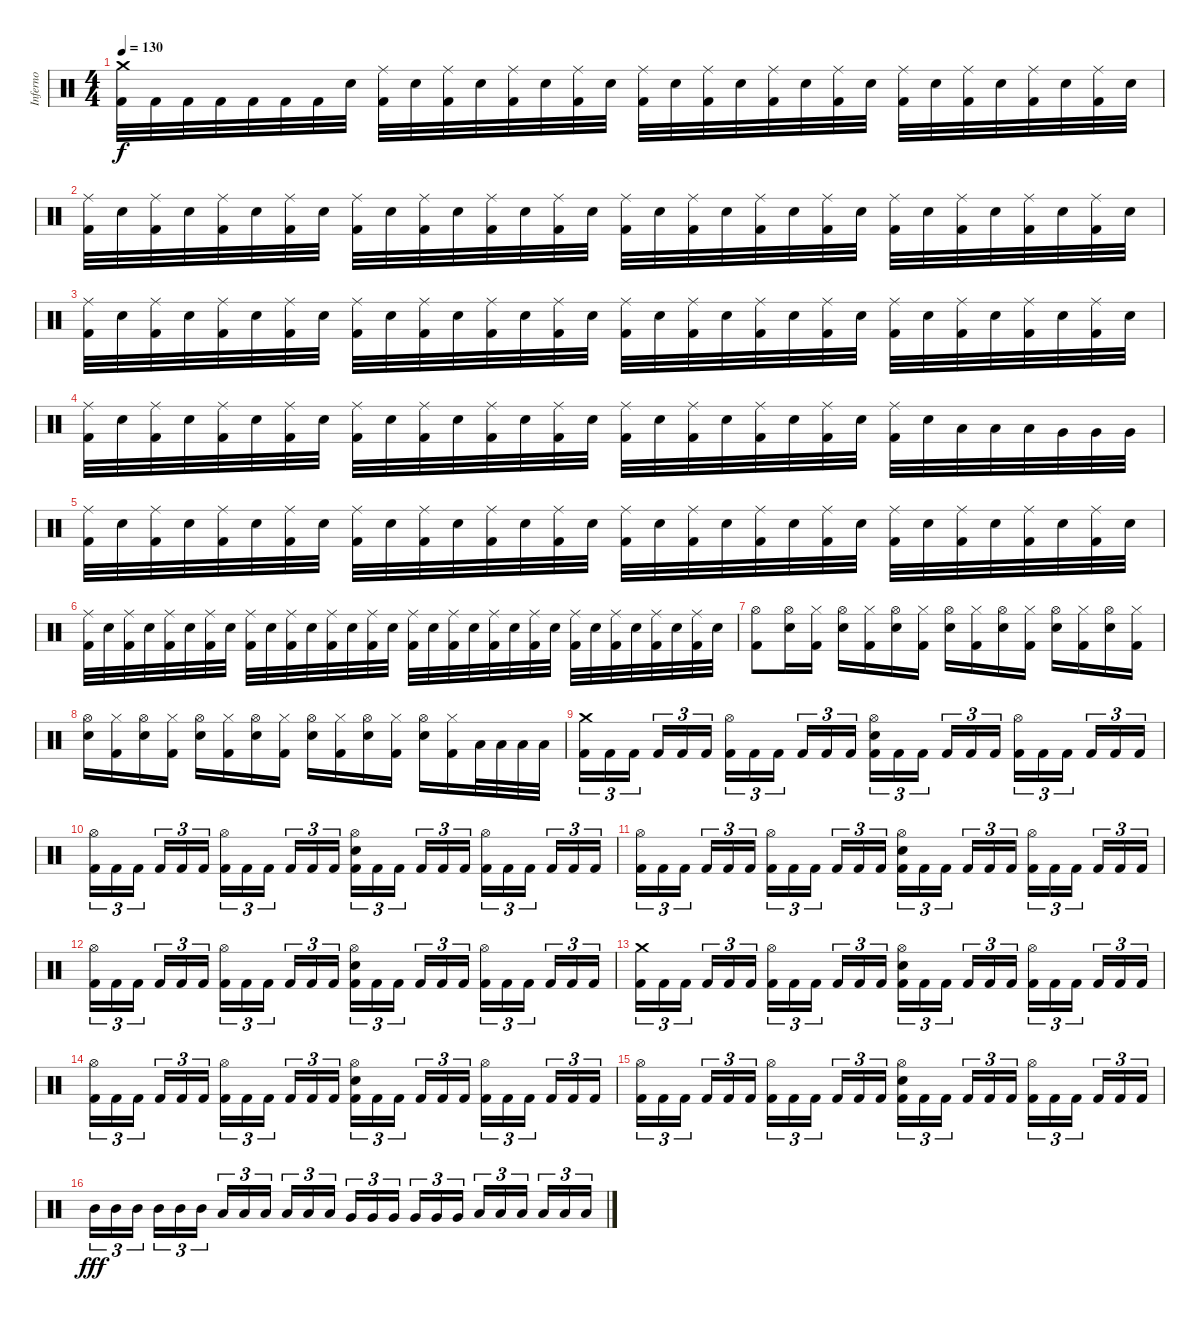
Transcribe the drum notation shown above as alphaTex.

\track ("Inferno" "Inferno") {instrument percussion}
\staff {score}
\articulation defaults
\ts (4 4)
\tempo 130
\clef neutral
\ks c
("Crash medium (hit)" "Kick (hit) 2").32{dy f} "Kick (hit) 2".32 "Kick (hit) 2".32 "Kick (hit) 2".32 "Kick (hit) 2".32 "Kick (hit) 2".32 "Kick (hit) 2".32 "Snare (hit) 2".32 ("Ride (middle)" "Kick (hit) 2").32 "Snare (hit) 2".32 ("Ride (middle)" "Kick (hit) 2").32 "Snare (hit) 2".32 ("Ride (middle)" "Kick (hit) 2").32 "Snare (hit) 2".32 ("Ride (middle)" "Kick (hit) 2").32 "Snare (hit) 2".32 ("Ride (middle)" "Kick (hit) 2").32 "Snare (hit) 2".32 ("Ride (middle)" "Kick (hit) 2").32 "Snare (hit) 2".32 ("Ride (middle)" "Kick (hit) 2").32 "Snare (hit) 2".32 ("Ride (middle)" "Kick (hit) 2").32 "Snare (hit) 2".32 ("Ride (middle)" "Kick (hit) 2").32 "Snare (hit) 2".32 ("Ride (middle)" "Kick (hit) 2").32 "Snare (hit) 2".32 ("Ride (middle)" "Kick (hit) 2").32 "Snare (hit) 2".32 ("Ride (middle)" "Kick (hit) 2").32 "Snare (hit) 2".32 |
("Ride (middle)" "Kick (hit) 2").32 "Snare (hit) 2".32 ("Ride (middle)" "Kick (hit) 2").32 "Snare (hit) 2".32 ("Ride (middle)" "Kick (hit) 2").32 "Snare (hit) 2".32 ("Ride (middle)" "Kick (hit) 2").32 "Snare (hit) 2".32 ("Ride (middle)" "Kick (hit) 2").32 "Snare (hit) 2".32 ("Ride (middle)" "Kick (hit) 2").32 "Snare (hit) 2".32 ("Ride (middle)" "Kick (hit) 2").32 "Snare (hit) 2".32 ("Ride (middle)" "Kick (hit) 2").32 "Snare (hit) 2".32 ("Ride (middle)" "Kick (hit) 2").32 "Snare (hit) 2".32 ("Ride (middle)" "Kick (hit) 2").32 "Snare (hit) 2".32 ("Ride (middle)" "Kick (hit) 2").32 "Snare (hit) 2".32 ("Ride (middle)" "Kick (hit) 2").32 "Snare (hit) 2".32 ("Ride (middle)" "Kick (hit) 2").32 "Snare (hit) 2".32 ("Ride (middle)" "Kick (hit) 2").32 "Snare (hit) 2".32 ("Ride (middle)" "Kick (hit) 2").32 "Snare (hit) 2".32 ("Ride (middle)" "Kick (hit) 2").32 "Snare (hit) 2".32 |
("Ride (middle)" "Kick (hit) 2").32 "Snare (hit) 2".32 ("Ride (middle)" "Kick (hit) 2").32 "Snare (hit) 2".32 ("Ride (middle)" "Kick (hit) 2").32 "Snare (hit) 2".32 ("Ride (middle)" "Kick (hit) 2").32 "Snare (hit) 2".32 ("Ride (middle)" "Kick (hit) 2").32 "Snare (hit) 2".32 ("Ride (middle)" "Kick (hit) 2").32 "Snare (hit) 2".32 ("Ride (middle)" "Kick (hit) 2").32 "Snare (hit) 2".32 ("Ride (middle)" "Kick (hit) 2").32 "Snare (hit) 2".32 ("Ride (middle)" "Kick (hit) 2").32 "Snare (hit) 2".32 ("Ride (middle)" "Kick (hit) 2").32 "Snare (hit) 2".32 ("Ride (middle)" "Kick (hit) 2").32 "Snare (hit) 2".32 ("Ride (middle)" "Kick (hit) 2").32 "Snare (hit) 2".32 ("Ride (middle)" "Kick (hit) 2").32 "Snare (hit) 2".32 ("Ride (middle)" "Kick (hit) 2").32 "Snare (hit) 2".32 ("Ride (middle)" "Kick (hit) 2").32 "Snare (hit) 2".32 ("Ride (middle)" "Kick (hit) 2").32 "Snare (hit) 2".32 |
("Ride (middle)" "Kick (hit) 2").32 "Snare (hit) 2".32 ("Ride (middle)" "Kick (hit) 2").32 "Snare (hit) 2".32 ("Ride (middle)" "Kick (hit) 2").32 "Snare (hit) 2".32 ("Ride (middle)" "Kick (hit) 2").32 "Snare (hit) 2".32 ("Ride (middle)" "Kick (hit) 2").32 "Snare (hit) 2".32 ("Ride (middle)" "Kick (hit) 2").32 "Snare (hit) 2".32 ("Ride (middle)" "Kick (hit) 2").32 "Snare (hit) 2".32 ("Ride (middle)" "Kick (hit) 2").32 "Snare (hit) 2".32 ("Ride (middle)" "Kick (hit) 2").32 "Snare (hit) 2".32 ("Ride (middle)" "Kick (hit) 2").32 "Snare (hit) 2".32 ("Ride (middle)" "Kick (hit) 2").32 "Snare (hit) 2".32 ("Ride (middle)" "Kick (hit) 2").32 "Snare (hit) 2".32 ("Ride (middle)" "Kick (hit) 2").32 "Snare (hit) 2".32 "Low Tom (hit)".32 "Low Tom (hit)".32 "Low Tom (hit)".32 "Very Low Tom (hit)".32 "Very Low Tom (hit)".32 "Very Low Tom (hit)".32 |
("Ride (middle)" "Kick (hit) 2").32 "Snare (hit) 2".32 ("Ride (middle)" "Kick (hit) 2").32 "Snare (hit) 2".32 ("Ride (middle)" "Kick (hit) 2").32 "Snare (hit) 2".32 ("Ride (middle)" "Kick (hit) 2").32 "Snare (hit) 2".32 ("Ride (middle)" "Kick (hit) 2").32 "Snare (hit) 2".32 ("Ride (middle)" "Kick (hit) 2").32 "Snare (hit) 2".32 ("Ride (middle)" "Kick (hit) 2").32 "Snare (hit) 2".32 ("Ride (middle)" "Kick (hit) 2").32 "Snare (hit) 2".32 ("Ride (middle)" "Kick (hit) 2").32 "Snare (hit) 2".32 ("Ride (middle)" "Kick (hit) 2").32 "Snare (hit) 2".32 ("Ride (middle)" "Kick (hit) 2").32 "Snare (hit) 2".32 ("Ride (middle)" "Kick (hit) 2").32 "Snare (hit) 2".32 ("Ride (middle)" "Kick (hit) 2").32 "Snare (hit) 2".32 ("Ride (middle)" "Kick (hit) 2").32 "Snare (hit) 2".32 ("Ride (middle)" "Kick (hit) 2").32 "Snare (hit) 2".32 ("Ride (middle)" "Kick (hit) 2").32 "Snare (hit) 2".32 |
("Ride (middle)" "Kick (hit) 2").32 "Snare (hit) 2".32 ("Ride (middle)" "Kick (hit) 2").32 "Snare (hit) 2".32 ("Ride (middle)" "Kick (hit) 2").32 "Snare (hit) 2".32 ("Ride (middle)" "Kick (hit) 2").32 "Snare (hit) 2".32 ("Ride (middle)" "Kick (hit) 2").32 "Snare (hit) 2".32 ("Ride (middle)" "Kick (hit) 2").32 "Snare (hit) 2".32 ("Ride (middle)" "Kick (hit) 2").32 "Snare (hit) 2".32 ("Ride (middle)" "Kick (hit) 2").32 "Snare (hit) 2".32 ("Ride (middle)" "Kick (hit) 2").32 "Snare (hit) 2".32 ("Ride (middle)" "Kick (hit) 2").32 "Snare (hit) 2".32 ("Ride (middle)" "Kick (hit) 2").32 "Snare (hit) 2".32 ("Ride (middle)" "Kick (hit) 2").32 "Snare (hit) 2".32 ("Ride (middle)" "Kick (hit) 2").32 "Snare (hit) 2".32 ("Ride (middle)" "Kick (hit) 2").32 "Snare (hit) 2".32 ("Ride (middle)" "Kick (hit) 2").32 "Snare (hit) 2".32 ("Ride (middle)" "Kick (hit) 2").32 "Snare (hit) 2".32 |
("Hi-Hat (open)" "Kick (hit) 2").8 ("Hi-Hat (open)" "Snare (hit) 2").16 ("Hi-Hat (closed)" "Kick (hit) 2").16 ("Hi-Hat (open)" "Snare (hit) 2").16 ("Hi-Hat (closed)" "Kick (hit) 2").16 ("Hi-Hat (open)" "Snare (hit) 2").16 ("Hi-Hat (closed)" "Kick (hit) 2").16 ("Hi-Hat (open)" "Snare (hit) 2").16 ("Hi-Hat (closed)" "Kick (hit) 2").16 ("Hi-Hat (open)" "Snare (hit) 2").16 ("Hi-Hat (closed)" "Kick (hit) 2").16 ("Hi-Hat (open)" "Snare (hit) 2").16 ("Hi-Hat (closed)" "Kick (hit) 2").16 ("Hi-Hat (open)" "Snare (hit) 2").16 ("Hi-Hat (closed)" "Kick (hit) 2").16 |
("Hi-Hat (open)" "Snare (hit) 2").16 ("Hi-Hat (closed)" "Kick (hit) 2").16 ("Hi-Hat (open)" "Snare (hit) 2").16 ("Hi-Hat (closed)" "Kick (hit) 2").16 ("Hi-Hat (open)" "Snare (hit) 2").16 ("Hi-Hat (closed)" "Kick (hit) 2").16 ("Hi-Hat (open)" "Snare (hit) 2").16 ("Hi-Hat (closed)" "Kick (hit) 2").16 ("Hi-Hat (open)" "Snare (hit) 2").16 ("Hi-Hat (closed)" "Kick (hit) 2").16 ("Hi-Hat (open)" "Snare (hit) 2").16 ("Hi-Hat (closed)" "Kick (hit) 2").16 ("Hi-Hat (open)" "Snare (hit) 2").16 ("Hi-Hat (closed)" "Kick (hit) 2").16 "Low Floor Tom (hit)".32 "Low Floor Tom (hit)".32 "Low Floor Tom (hit)".32 "Low Floor Tom (hit)".32 |
("Crash medium (hit)" "Kick (hit) 2").16{tu (3 2)} "Kick (hit) 2".16{tu (3 2)} "Kick (hit) 2".16{tu (3 2) beam splitsecondary} "Kick (hit) 2".16{tu (3 2)} "Kick (hit) 2".16{tu (3 2)} "Kick (hit) 2".16{tu (3 2)} ("Hi-Hat (open)" "Kick (hit) 2").16{tu (3 2)} "Kick (hit) 2".16{tu (3 2)} "Kick (hit) 2".16{tu (3 2) beam splitsecondary} "Kick (hit) 2".16{tu (3 2)} "Kick (hit) 2".16{tu (3 2)} "Kick (hit) 2".16{tu (3 2)} ("Hi-Hat (open)" "Snare (hit) 2" "Kick (hit) 2").16{tu (3 2)} "Kick (hit) 2".16{tu (3 2)} "Kick (hit) 2".16{tu (3 2) beam splitsecondary} "Kick (hit) 2".16{tu (3 2)} "Kick (hit) 2".16{tu (3 2)} "Kick (hit) 2".16{tu (3 2)} ("Hi-Hat (open)" "Kick (hit) 2").16{tu (3 2)} "Kick (hit) 2".16{tu (3 2)} "Kick (hit) 2".16{tu (3 2) beam splitsecondary} "Kick (hit) 2".16{tu (3 2)} "Kick (hit) 2".16{tu (3 2)} "Kick (hit) 2".16{tu (3 2)} |
("Hi-Hat (open)" "Kick (hit) 2").16{tu (3 2)} "Kick (hit) 2".16{tu (3 2)} "Kick (hit) 2".16{tu (3 2) beam splitsecondary} "Kick (hit) 2".16{tu (3 2)} "Kick (hit) 2".16{tu (3 2)} "Kick (hit) 2".16{tu (3 2)} ("Hi-Hat (open)" "Kick (hit) 2").16{tu (3 2)} "Kick (hit) 2".16{tu (3 2)} "Kick (hit) 2".16{tu (3 2) beam splitsecondary} "Kick (hit) 2".16{tu (3 2)} "Kick (hit) 2".16{tu (3 2)} "Kick (hit) 2".16{tu (3 2)} ("Hi-Hat (open)" "Snare (hit) 2" "Kick (hit) 2").16{tu (3 2)} "Kick (hit) 2".16{tu (3 2)} "Kick (hit) 2".16{tu (3 2) beam splitsecondary} "Kick (hit) 2".16{tu (3 2)} "Kick (hit) 2".16{tu (3 2)} "Kick (hit) 2".16{tu (3 2)} ("Hi-Hat (open)" "Kick (hit) 2").16{tu (3 2)} "Kick (hit) 2".16{tu (3 2)} "Kick (hit) 2".16{tu (3 2) beam splitsecondary} "Kick (hit) 2".16{tu (3 2)} "Kick (hit) 2".16{tu (3 2)} "Kick (hit) 2".16{tu (3 2)} |
("Hi-Hat (open)" "Kick (hit) 2").16{tu (3 2)} "Kick (hit) 2".16{tu (3 2)} "Kick (hit) 2".16{tu (3 2) beam splitsecondary} "Kick (hit) 2".16{tu (3 2)} "Kick (hit) 2".16{tu (3 2)} "Kick (hit) 2".16{tu (3 2)} ("Hi-Hat (open)" "Kick (hit) 2").16{tu (3 2)} "Kick (hit) 2".16{tu (3 2)} "Kick (hit) 2".16{tu (3 2) beam splitsecondary} "Kick (hit) 2".16{tu (3 2)} "Kick (hit) 2".16{tu (3 2)} "Kick (hit) 2".16{tu (3 2)} ("Hi-Hat (open)" "Snare (hit) 2" "Kick (hit) 2").16{tu (3 2)} "Kick (hit) 2".16{tu (3 2)} "Kick (hit) 2".16{tu (3 2) beam splitsecondary} "Kick (hit) 2".16{tu (3 2)} "Kick (hit) 2".16{tu (3 2)} "Kick (hit) 2".16{tu (3 2)} ("Hi-Hat (open)" "Kick (hit) 2").16{tu (3 2)} "Kick (hit) 2".16{tu (3 2)} "Kick (hit) 2".16{tu (3 2) beam splitsecondary} "Kick (hit) 2".16{tu (3 2)} "Kick (hit) 2".16{tu (3 2)} "Kick (hit) 2".16{tu (3 2)} |
("Hi-Hat (open)" "Kick (hit) 2").16{tu (3 2)} "Kick (hit) 2".16{tu (3 2)} "Kick (hit) 2".16{tu (3 2) beam splitsecondary} "Kick (hit) 2".16{tu (3 2)} "Kick (hit) 2".16{tu (3 2)} "Kick (hit) 2".16{tu (3 2)} ("Hi-Hat (open)" "Kick (hit) 2").16{tu (3 2)} "Kick (hit) 2".16{tu (3 2)} "Kick (hit) 2".16{tu (3 2) beam splitsecondary} "Kick (hit) 2".16{tu (3 2)} "Kick (hit) 2".16{tu (3 2)} "Kick (hit) 2".16{tu (3 2)} ("Hi-Hat (open)" "Snare (hit) 2" "Kick (hit) 2").16{tu (3 2)} "Kick (hit) 2".16{tu (3 2)} "Kick (hit) 2".16{tu (3 2) beam splitsecondary} "Kick (hit) 2".16{tu (3 2)} "Kick (hit) 2".16{tu (3 2)} "Kick (hit) 2".16{tu (3 2)} ("Hi-Hat (open)" "Kick (hit) 2").16{tu (3 2)} "Kick (hit) 2".16{tu (3 2)} "Kick (hit) 2".16{tu (3 2) beam splitsecondary} "Kick (hit) 2".16{tu (3 2)} "Kick (hit) 2".16{tu (3 2)} "Kick (hit) 2".16{tu (3 2)} |
("Crash medium (hit)" "Kick (hit) 2").16{tu (3 2)} "Kick (hit) 2".16{tu (3 2)} "Kick (hit) 2".16{tu (3 2) beam splitsecondary} "Kick (hit) 2".16{tu (3 2)} "Kick (hit) 2".16{tu (3 2)} "Kick (hit) 2".16{tu (3 2)} ("Hi-Hat (open)" "Kick (hit) 2").16{tu (3 2)} "Kick (hit) 2".16{tu (3 2)} "Kick (hit) 2".16{tu (3 2) beam splitsecondary} "Kick (hit) 2".16{tu (3 2)} "Kick (hit) 2".16{tu (3 2)} "Kick (hit) 2".16{tu (3 2)} ("Hi-Hat (open)" "Snare (hit) 2" "Kick (hit) 2").16{tu (3 2)} "Kick (hit) 2".16{tu (3 2)} "Kick (hit) 2".16{tu (3 2) beam splitsecondary} "Kick (hit) 2".16{tu (3 2)} "Kick (hit) 2".16{tu (3 2)} "Kick (hit) 2".16{tu (3 2)} ("Hi-Hat (open)" "Kick (hit) 2").16{tu (3 2)} "Kick (hit) 2".16{tu (3 2)} "Kick (hit) 2".16{tu (3 2) beam splitsecondary} "Kick (hit) 2".16{tu (3 2)} "Kick (hit) 2".16{tu (3 2)} "Kick (hit) 2".16{tu (3 2)} |
("Hi-Hat (open)" "Kick (hit) 2").16{tu (3 2)} "Kick (hit) 2".16{tu (3 2)} "Kick (hit) 2".16{tu (3 2) beam splitsecondary} "Kick (hit) 2".16{tu (3 2)} "Kick (hit) 2".16{tu (3 2)} "Kick (hit) 2".16{tu (3 2)} ("Hi-Hat (open)" "Kick (hit) 2").16{tu (3 2)} "Kick (hit) 2".16{tu (3 2)} "Kick (hit) 2".16{tu (3 2) beam splitsecondary} "Kick (hit) 2".16{tu (3 2)} "Kick (hit) 2".16{tu (3 2)} "Kick (hit) 2".16{tu (3 2)} ("Hi-Hat (open)" "Snare (hit) 2" "Kick (hit) 2").16{tu (3 2)} "Kick (hit) 2".16{tu (3 2)} "Kick (hit) 2".16{tu (3 2) beam splitsecondary} "Kick (hit) 2".16{tu (3 2)} "Kick (hit) 2".16{tu (3 2)} "Kick (hit) 2".16{tu (3 2)} ("Hi-Hat (open)" "Kick (hit) 2").16{tu (3 2)} "Kick (hit) 2".16{tu (3 2)} "Kick (hit) 2".16{tu (3 2) beam splitsecondary} "Kick (hit) 2".16{tu (3 2)} "Kick (hit) 2".16{tu (3 2)} "Kick (hit) 2".16{tu (3 2)} |
("Hi-Hat (open)" "Kick (hit) 2").16{tu (3 2)} "Kick (hit) 2".16{tu (3 2)} "Kick (hit) 2".16{tu (3 2) beam splitsecondary} "Kick (hit) 2".16{tu (3 2)} "Kick (hit) 2".16{tu (3 2)} "Kick (hit) 2".16{tu (3 2)} ("Hi-Hat (open)" "Kick (hit) 2").16{tu (3 2)} "Kick (hit) 2".16{tu (3 2)} "Kick (hit) 2".16{tu (3 2) beam splitsecondary} "Kick (hit) 2".16{tu (3 2)} "Kick (hit) 2".16{tu (3 2)} "Kick (hit) 2".16{tu (3 2)} ("Hi-Hat (open)" "Snare (hit) 2" "Kick (hit) 2").16{tu (3 2)} "Kick (hit) 2".16{tu (3 2)} "Kick (hit) 2".16{tu (3 2) beam splitsecondary} "Kick (hit) 2".16{tu (3 2)} "Kick (hit) 2".16{tu (3 2)} "Kick (hit) 2".16{tu (3 2)} ("Hi-Hat (open)" "Kick (hit) 2").16{tu (3 2)} "Kick (hit) 2".16{tu (3 2)} "Kick (hit) 2".16{tu (3 2) beam splitsecondary} "Kick (hit) 2".16{tu (3 2)} "Kick (hit) 2".16{tu (3 2)} "Kick (hit) 2".16{tu (3 2)} |
"Mid Tom (hit)".16{tu (3 2) dy fff} "Mid Tom (hit)".16{tu (3 2)} "Mid Tom (hit)".16{tu (3 2) beam splitsecondary} "Mid Tom (hit)".16{tu (3 2)} "Mid Tom (hit)".16{tu (3 2)} "Mid Tom (hit)".16{tu (3 2)} "Low Tom (hit)".16{tu (3 2)} "Low Tom (hit)".16{tu (3 2)} "Low Tom (hit)".16{tu (3 2) beam splitsecondary} "Low Tom (hit)".16{tu (3 2)} "Low Tom (hit)".16{tu (3 2)} "Low Tom (hit)".16{tu (3 2)} "Very Low Tom (hit)".16{tu (3 2)} "Very Low Tom (hit)".16{tu (3 2)} "Very Low Tom (hit)".16{tu (3 2) beam splitsecondary} "Very Low Tom (hit)".16{tu (3 2)} "Very Low Tom (hit)".16{tu (3 2)} "Very Low Tom (hit)".16{tu (3 2)} "Low Floor Tom (hit)".16{tu (3 2)} "Low Floor Tom (hit)".16{tu (3 2)} "Low Floor Tom (hit)".16{tu (3 2) beam splitsecondary} "Low Floor Tom (hit)".16{tu (3 2)} "Low Floor Tom (hit)".16{tu (3 2)} "Low Floor Tom (hit)".16{tu (3 2)}
